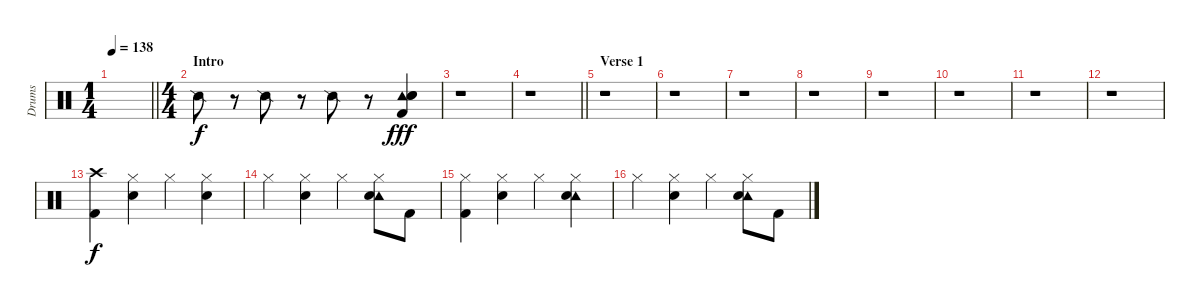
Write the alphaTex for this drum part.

\track ("Drums" "Drums") {instrument percussion}
\staff {score}
\articulation defaults
\ts (1 4)
\tempo 138
\clef neutral
\barLineRight lightlight
\ks c
|
\ts (4 4)
\section ("" "Intro")
"Snare (side stick) 2".8 r.8 "Snare (side stick) 2".8 r.8 "Snare (side stick) 2".8 r.8 ("Tambourine (hit)" "Snare (hit) 2" "Electric Snare (hit)" "Kick (hit) 2").4{dy fff} |
r.1 |
\barLineRight lightlight
r.1 |
\section ("" "Verse 1")
r.1 |
r.1 |
r.1 |
r.1 |
r.1 |
r.1 |
r.1 |
r.1 |
("Crash high (hit)" "Kick (hit) 2").4{dy f} ("Hi-Hat (closed)" "Snare (hit) 2").4 "Hi-Hat (closed)".4 ("Hi-Hat (closed)" "Snare (hit) 2").4 |
"Hi-Hat (closed)".4 ("Hi-Hat (closed)" "Snare (hit) 2").4 "Hi-Hat (closed)".4 ("Tambourine (hit)" "Hi-Hat (closed)" "Snare (hit) 2").8 "Kick (hit) 2".8 |
("Hi-Hat (closed)" "Kick (hit) 2").4 ("Hi-Hat (closed)" "Snare (hit) 2").4 "Hi-Hat (closed)".4 ("Tambourine (hit)" "Hi-Hat (closed)" "Snare (hit) 2").4 |
"Hi-Hat (closed)".4 ("Hi-Hat (closed)" "Snare (hit) 2").4 "Hi-Hat (closed)".4 ("Tambourine (hit)" "Hi-Hat (closed)" "Snare (hit) 2").8 "Kick (hit) 2".8
